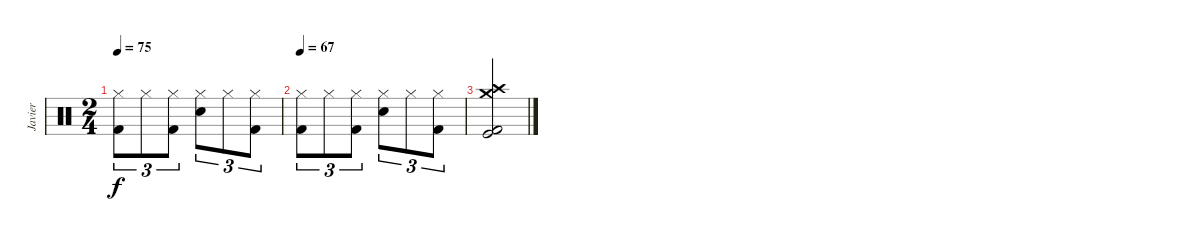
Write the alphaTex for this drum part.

\track ("Javier" "Javier") {instrument percussion}
\staff {score}
\articulation defaults
\ts (2 4)
\tempo 75
\clef neutral
\ks c
("Hi-Hat (closed)" "Kick (hit) 2").8{tu (3 2) dy f} "Hi-Hat (closed)".8{tu (3 2)} ("Hi-Hat (closed)" "Kick (hit) 2").8{tu (3 2)} ("Hi-Hat (closed)" "Snare (hit) 2").8{tu (3 2)} "Hi-Hat (closed)".8{tu (3 2)} ("Hi-Hat (closed)" "Kick (hit) 2").8{tu (3 2)} |
\tempo 67
("Hi-Hat (closed)" "Kick (hit) 2").8{tu (3 2)} "Hi-Hat (closed)".8{tu (3 2)} ("Hi-Hat (closed)" "Kick (hit) 2").8{tu (3 2)} ("Hi-Hat (closed)" "Snare (hit) 2").8{tu (3 2)} "Hi-Hat (closed)".8{tu (3 2)} ("Hi-Hat (closed)" "Kick (hit) 2").8{tu (3 2)} |
("Crash high (hit)" "Crash medium (hit)" "Kick (hit) 2" "Kick (hit)").2
